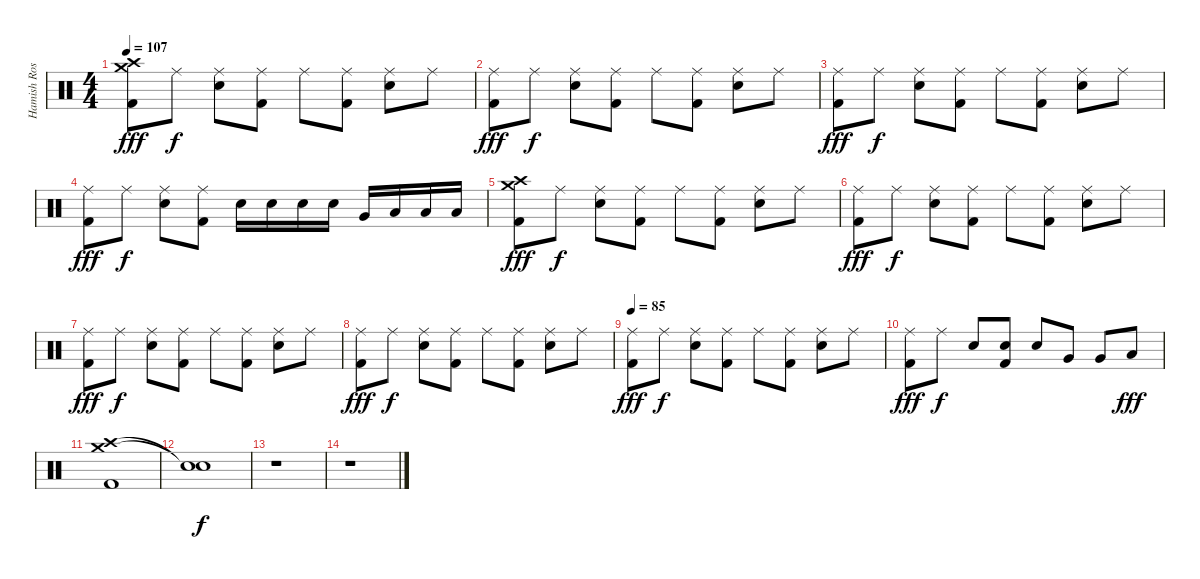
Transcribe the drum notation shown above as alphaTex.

\track ("Hamish Rosser" "Hamish Ros") {instrument percussion}
\staff {score}
\articulation defaults
\ts (4 4)
\tempo 107
\clef neutral
\ks c
("Crash medium (hit)" "Crash high (hit)" "Kick (hit) 2").8{dy fff} "Ride (middle)".8{dy f} ("Ride (middle)" "Electric Snare (hit)").8 ("Ride (middle)" "Kick (hit) 2").8 "Ride (middle)".8 ("Ride (middle)" "Kick (hit) 2").8 ("Ride (middle)" "Electric Snare (hit)").8 "Ride (middle)".8 |
("Ride (middle)" "Kick (hit) 2").8{dy fff} "Ride (middle)".8{dy f} ("Ride (middle)" "Electric Snare (hit)").8 ("Ride (middle)" "Kick (hit) 2").8 "Ride (middle)".8 ("Ride (middle)" "Kick (hit) 2").8 ("Ride (middle)" "Electric Snare (hit)").8 "Ride (middle)".8 |
("Ride (middle)" "Kick (hit) 2").8{dy fff} "Ride (middle)".8{dy f} ("Ride (middle)" "Electric Snare (hit)").8 ("Ride (middle)" "Kick (hit) 2").8 "Ride (middle)".8 ("Ride (middle)" "Kick (hit) 2").8 ("Ride (middle)" "Electric Snare (hit)").8 "Ride (middle)".8 |
("Ride (middle)" "Kick (hit) 2").8{dy fff} "Ride (middle)".8{dy f} ("Ride (middle)" "Electric Snare (hit)").8 ("Ride (middle)" "Kick (hit) 2").8 "Electric Snare (hit)".16 "Electric Snare (hit)".16 "Electric Snare (hit)".16 "Electric Snare (hit)".16 "Very Low Tom (hit)".16 "Low Tom (hit)".16 "Low Tom (hit)".16 "Low Tom (hit)".16 |
("Crash medium (hit)" "Crash high (hit)" "Kick (hit) 2").8{dy fff} "Ride (middle)".8{dy f} ("Ride (middle)" "Electric Snare (hit)").8 ("Ride (middle)" "Kick (hit) 2").8 "Ride (middle)".8 ("Ride (middle)" "Kick (hit) 2").8 ("Ride (middle)" "Electric Snare (hit)").8 "Ride (middle)".8 |
("Ride (middle)" "Kick (hit) 2").8{dy fff} "Ride (middle)".8{dy f} ("Ride (middle)" "Electric Snare (hit)").8 ("Ride (middle)" "Kick (hit) 2").8 "Ride (middle)".8 ("Ride (middle)" "Kick (hit) 2").8 ("Ride (middle)" "Electric Snare (hit)").8 "Ride (middle)".8 |
("Ride (middle)" "Kick (hit) 2").8{dy fff} "Ride (middle)".8{dy f} ("Ride (middle)" "Electric Snare (hit)").8 ("Ride (middle)" "Kick (hit) 2").8 "Ride (middle)".8 ("Ride (middle)" "Kick (hit) 2").8 ("Ride (middle)" "Electric Snare (hit)").8 "Ride (middle)".8 |
("Ride (middle)" "Kick (hit) 2").8{dy fff} "Ride (middle)".8{dy f} ("Ride (middle)" "Electric Snare (hit)").8 ("Ride (middle)" "Kick (hit) 2").8 "Ride (middle)".8 ("Ride (middle)" "Kick (hit) 2").8 ("Ride (middle)" "Electric Snare (hit)").8 "Ride (middle)".8 |
\tempo 85
("Ride (middle)" "Kick (hit) 2").8{dy fff} "Ride (middle)".8{dy f} ("Ride (middle)" "Electric Snare (hit)").8 ("Ride (middle)" "Kick (hit) 2").8 "Ride (middle)".8 ("Ride (middle)" "Kick (hit) 2").8 ("Ride (middle)" "Electric Snare (hit)").8 "Ride (middle)".8 |
("Ride (middle)" "Kick (hit) 2").8{dy fff} "Ride (middle)".8{dy f} "Electric Snare (hit)".8 ("Electric Snare (hit)" "Kick (hit) 2").8 "Electric Snare (hit)".8 "Very Low Tom (hit)".8 "Very Low Tom (hit)".8 "Low Tom (hit)".8{dy fff} |
("Crash medium (hit)" "Crash high (hit)" "Kick (hit) 2").1 |
("Snare (hit)"{t} "Snare (hit)"{t}).1{dy f} |
r.1 |
r.1
